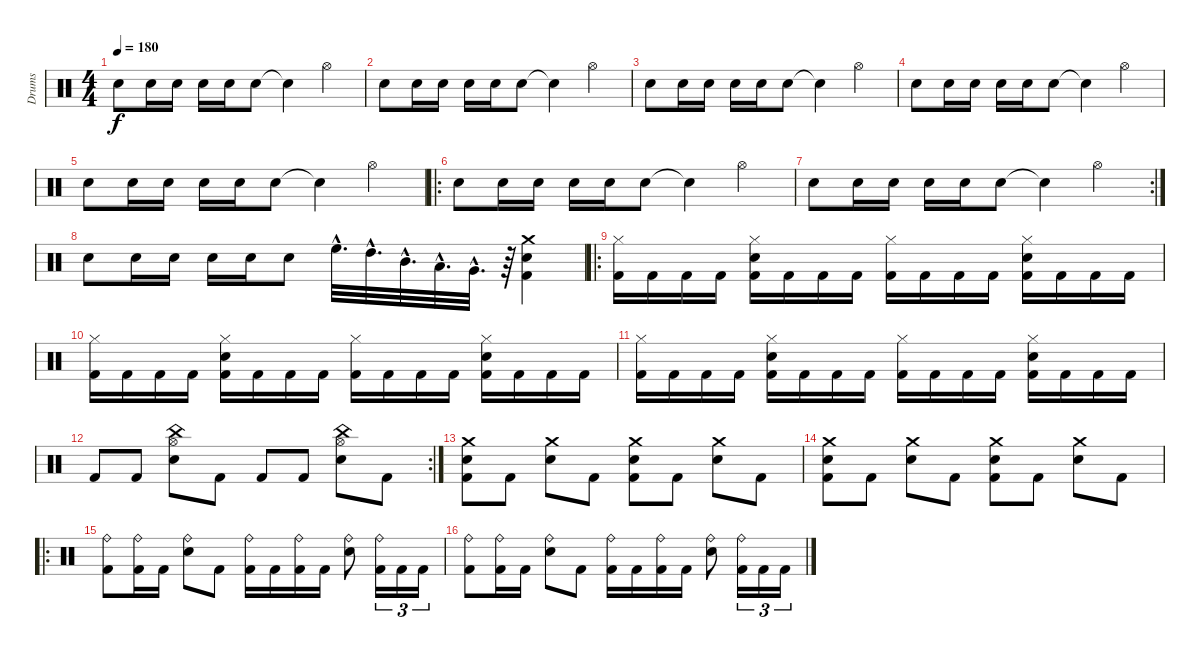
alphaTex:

\track ("Drums" "Drums") {instrument percussion}
\staff {score}
\articulation defaults
\ts (4 4)
\tempo 180
\clef neutral
\ks c "Electric Snare (hit)".8{dy f} "Electric Snare (hit)".16 "Electric Snare (hit)".16 "Electric Snare (hit)".16 "Electric Snare (hit)".16 "Electric Snare (hit)".8 "Electric Snare (hit)"{t}.4 "Hi-Hat (open)".4
|
"Electric Snare (hit)".8 "Electric Snare (hit)".16 "Electric Snare (hit)".16 "Electric Snare (hit)".16 "Electric Snare (hit)".16 "Electric Snare (hit)".8 "Electric Snare (hit)"{t}.4 "Hi-Hat (open)".4 |
"Electric Snare (hit)".8 "Electric Snare (hit)".16 "Electric Snare (hit)".16 "Electric Snare (hit)".16 "Electric Snare (hit)".16 "Electric Snare (hit)".8 "Electric Snare (hit)"{t}.4 "Hi-Hat (open)".4 |
"Electric Snare (hit)".8 "Electric Snare (hit)".16 "Electric Snare (hit)".16 "Electric Snare (hit)".16 "Electric Snare (hit)".16 "Electric Snare (hit)".8 "Electric Snare (hit)"{t}.4 "Hi-Hat (open)".4 |
"Electric Snare (hit)".8 "Electric Snare (hit)".16 "Electric Snare (hit)".16 "Electric Snare (hit)".16 "Electric Snare (hit)".16 "Electric Snare (hit)".8 "Electric Snare (hit)"{t}.4 "Hi-Hat (open)".4 |
\ro "Electric Snare (hit)".8 "Electric Snare (hit)".16 "Electric Snare (hit)".16 "Electric Snare (hit)".16 "Electric Snare (hit)".16 "Electric Snare (hit)".8 "Electric Snare (hit)"{t}.4 "Hi-Hat (open)".4
|
\rc 2 "Electric Snare (hit)".8 "Electric Snare (hit)".16 "Electric Snare (hit)".16 "Electric Snare (hit)".16 "Electric Snare (hit)".16 "Electric Snare (hit)".8 "Electric Snare (hit)"{t}.4 "Hi-Hat (open)".4
|
"Electric Snare (hit)".8 "Electric Snare (hit)".16 "Electric Snare (hit)".16 "Electric Snare (hit)".16 "Electric Snare (hit)".16 "Electric Snare (hit)".8 "High Floor Tom (hit)"{hac}.32{d} "High Tom (hit)"{hac}.32{d} "Mid Tom (hit)"{hac}.32{d} "Low Tom (hit)"{hac}.32{d} "Very Low Tom (hit)"{hac}.32{d} r.64 ("Kick (hit) 2" "Electric Snare (hit)" "Crash medium (hit)").4 |
\ro
("Kick (hit) 2" "Hi-Hat (closed)").16 "Kick (hit) 2".16 "Kick (hit) 2".16 "Kick (hit) 2".16 ("Kick (hit) 2" "Electric Snare (hit)" "Hi-Hat (closed)").16 "Kick (hit) 2".16 "Kick (hit) 2".16 "Kick (hit) 2".16 ("Kick (hit) 2" "Hi-Hat (closed)").16 "Kick (hit) 2".16 "Kick (hit) 2".16 "Kick (hit) 2".16 ("Kick (hit) 2" "Electric Snare (hit)" "Hi-Hat (closed)").16 "Kick (hit) 2".16 "Kick (hit) 2".16 "Kick (hit) 2".16 |
("Kick (hit) 2" "Hi-Hat (closed)").16 "Kick (hit) 2".16 "Kick (hit) 2".16 "Kick (hit) 2".16 ("Kick (hit) 2" "Electric Snare (hit)" "Hi-Hat (closed)").16 "Kick (hit) 2".16 "Kick (hit) 2".16 "Kick (hit) 2".16 ("Kick (hit) 2" "Hi-Hat (closed)").16 "Kick (hit) 2".16 "Kick (hit) 2".16 "Kick (hit) 2".16 ("Kick (hit) 2" "Electric Snare (hit)" "Hi-Hat (closed)").16 "Kick (hit) 2".16 "Kick (hit) 2".16 "Kick (hit) 2".16 |
("Kick (hit) 2" "Hi-Hat (closed)").16 "Kick (hit) 2".16 "Kick (hit) 2".16 "Kick (hit) 2".16 ("Kick (hit) 2" "Electric Snare (hit)" "Hi-Hat (closed)").16 "Kick (hit) 2".16 "Kick (hit) 2".16 "Kick (hit) 2".16 ("Kick (hit) 2" "Hi-Hat (closed)").16 "Kick (hit) 2".16 "Kick (hit) 2".16 "Kick (hit) 2".16 ("Kick (hit) 2" "Electric Snare (hit)" "Hi-Hat (closed)").16 "Kick (hit) 2".16 "Kick (hit) 2".16 "Kick (hit) 2".16 |
\rc 2 "Kick (hit) 2".8 "Kick (hit) 2".8
("Electric Snare (hit)" "Hi-Hat (open)" "China (hit)").8 "Kick (hit) 2".8 "Kick (hit) 2".8 "Kick (hit) 2".8 ("Electric Snare (hit)" "Hi-Hat (open)" "China (hit)").8 "Kick (hit) 2".8 |
("Kick (hit) 2" "Electric Snare (hit)" "Crash medium (hit)").8 "Kick (hit) 2".8 ("Electric Snare (hit)" "Crash medium (hit)").8 "Kick (hit) 2".8 ("Kick (hit) 2" "Electric Snare (hit)" "Crash medium (hit)").8 "Kick (hit) 2".8 ("Electric Snare (hit)" "Crash medium (hit)").8 "Kick (hit) 2".8 |
("Kick (hit) 2" "Electric Snare (hit)" "Crash medium (hit)").8 "Kick (hit) 2".8 ("Electric Snare (hit)" "Crash medium (hit)").8 "Kick (hit) 2".8 ("Kick (hit) 2" "Electric Snare (hit)" "Crash medium (hit)").8 "Kick (hit) 2".8 ("Electric Snare (hit)" "Crash medium (hit)").8 "Kick (hit) 2".8 |
\ro
("Ride (bell)" "Kick (hit) 2").8 ("Ride (bell)" "Kick (hit) 2").16 "Kick (hit) 2".16 ("Ride (bell)" "Electric Snare (hit)").8 "Kick (hit) 2".8 ("Ride (bell)" "Kick (hit) 2").16 "Kick (hit) 2".16 ("Ride (bell)" "Kick (hit) 2").16 "Kick (hit) 2".16 ("Ride (bell)" "Electric Snare (hit)").8 ("Ride (bell)" "Kick (hit) 2").16{tu (3 2)} "Kick (hit) 2".16{tu (3 2)} "Kick (hit) 2".16{tu (3 2)} |
("Ride (bell)" "Kick (hit) 2").8 ("Ride (bell)" "Kick (hit) 2").16 "Kick (hit) 2".16 ("Ride (bell)" "Electric Snare (hit)").8 "Kick (hit) 2".8 ("Ride (bell)" "Kick (hit) 2").16 "Kick (hit) 2".16 ("Ride (bell)" "Kick (hit) 2").16 "Kick (hit) 2".16 ("Ride (bell)" "Electric Snare (hit)").8 ("Ride (bell)" "Kick (hit) 2").16{tu (3 2)} "Kick (hit) 2".16{tu (3 2)} "Kick (hit) 2".16{tu (3 2)}
